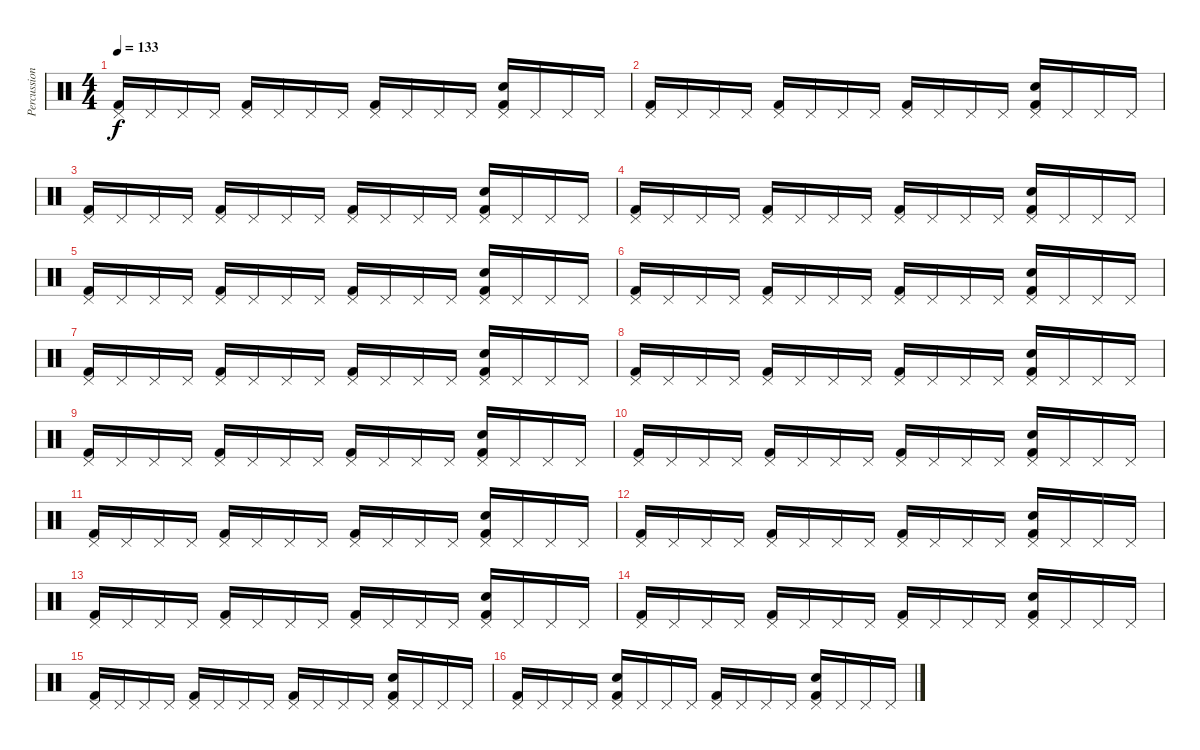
\track ("Percussions" "Percussion") {instrument percussion}
\staff {score}
\articulation defaults
\ts (4 4)
\tempo 133
\clef neutral
\ks c
("Pedal Hi-Hat (hit)" "Kick (hit) 2").16{dy f} "Pedal Hi-Hat (hit)".16 "Pedal Hi-Hat (hit)".16 "Pedal Hi-Hat (hit)".16 ("Pedal Hi-Hat (hit)" "Kick (hit) 2").16 "Pedal Hi-Hat (hit)".16 "Pedal Hi-Hat (hit)".16 "Pedal Hi-Hat (hit)".16 ("Pedal Hi-Hat (hit)" "Kick (hit) 2").16 "Pedal Hi-Hat (hit)".16 "Pedal Hi-Hat (hit)".16 "Pedal Hi-Hat (hit)".16 ("Pedal Hi-Hat (hit)" "Electric Snare (hit)" "Kick (hit) 2").16 "Pedal Hi-Hat (hit)".16 "Pedal Hi-Hat (hit)".16 "Pedal Hi-Hat (hit)".16 |
("Pedal Hi-Hat (hit)" "Kick (hit) 2").16 "Pedal Hi-Hat (hit)".16 "Pedal Hi-Hat (hit)".16 "Pedal Hi-Hat (hit)".16 ("Pedal Hi-Hat (hit)" "Kick (hit) 2").16 "Pedal Hi-Hat (hit)".16 "Pedal Hi-Hat (hit)".16 "Pedal Hi-Hat (hit)".16 ("Pedal Hi-Hat (hit)" "Kick (hit) 2").16 "Pedal Hi-Hat (hit)".16 "Pedal Hi-Hat (hit)".16 "Pedal Hi-Hat (hit)".16 ("Pedal Hi-Hat (hit)" "Electric Snare (hit)" "Kick (hit) 2").16 "Pedal Hi-Hat (hit)".16 "Pedal Hi-Hat (hit)".16 "Pedal Hi-Hat (hit)".16 |
("Pedal Hi-Hat (hit)" "Kick (hit) 2").16 "Pedal Hi-Hat (hit)".16 "Pedal Hi-Hat (hit)".16 "Pedal Hi-Hat (hit)".16 ("Pedal Hi-Hat (hit)" "Kick (hit) 2").16 "Pedal Hi-Hat (hit)".16 "Pedal Hi-Hat (hit)".16 "Pedal Hi-Hat (hit)".16 ("Pedal Hi-Hat (hit)" "Kick (hit) 2").16 "Pedal Hi-Hat (hit)".16 "Pedal Hi-Hat (hit)".16 "Pedal Hi-Hat (hit)".16 ("Pedal Hi-Hat (hit)" "Electric Snare (hit)" "Kick (hit) 2").16 "Pedal Hi-Hat (hit)".16 "Pedal Hi-Hat (hit)".16 "Pedal Hi-Hat (hit)".16 |
("Pedal Hi-Hat (hit)" "Kick (hit) 2").16 "Pedal Hi-Hat (hit)".16 "Pedal Hi-Hat (hit)".16 "Pedal Hi-Hat (hit)".16 ("Pedal Hi-Hat (hit)" "Kick (hit) 2").16 "Pedal Hi-Hat (hit)".16 "Pedal Hi-Hat (hit)".16 "Pedal Hi-Hat (hit)".16 ("Pedal Hi-Hat (hit)" "Kick (hit) 2").16 "Pedal Hi-Hat (hit)".16 "Pedal Hi-Hat (hit)".16 "Pedal Hi-Hat (hit)".16 ("Pedal Hi-Hat (hit)" "Electric Snare (hit)" "Kick (hit) 2").16 "Pedal Hi-Hat (hit)".16 "Pedal Hi-Hat (hit)".16 "Pedal Hi-Hat (hit)".16 |
("Pedal Hi-Hat (hit)" "Kick (hit) 2").16 "Pedal Hi-Hat (hit)".16 "Pedal Hi-Hat (hit)".16 "Pedal Hi-Hat (hit)".16 ("Pedal Hi-Hat (hit)" "Kick (hit) 2").16 "Pedal Hi-Hat (hit)".16 "Pedal Hi-Hat (hit)".16 "Pedal Hi-Hat (hit)".16 ("Pedal Hi-Hat (hit)" "Kick (hit) 2").16 "Pedal Hi-Hat (hit)".16 "Pedal Hi-Hat (hit)".16 "Pedal Hi-Hat (hit)".16 ("Pedal Hi-Hat (hit)" "Electric Snare (hit)" "Kick (hit) 2").16 "Pedal Hi-Hat (hit)".16 "Pedal Hi-Hat (hit)".16 "Pedal Hi-Hat (hit)".16 |
("Pedal Hi-Hat (hit)" "Kick (hit) 2").16 "Pedal Hi-Hat (hit)".16 "Pedal Hi-Hat (hit)".16 "Pedal Hi-Hat (hit)".16 ("Pedal Hi-Hat (hit)" "Kick (hit) 2").16 "Pedal Hi-Hat (hit)".16 "Pedal Hi-Hat (hit)".16 "Pedal Hi-Hat (hit)".16 ("Pedal Hi-Hat (hit)" "Kick (hit) 2").16 "Pedal Hi-Hat (hit)".16 "Pedal Hi-Hat (hit)".16 "Pedal Hi-Hat (hit)".16 ("Pedal Hi-Hat (hit)" "Electric Snare (hit)" "Kick (hit) 2").16 "Pedal Hi-Hat (hit)".16 "Pedal Hi-Hat (hit)".16 "Pedal Hi-Hat (hit)".16 |
("Pedal Hi-Hat (hit)" "Kick (hit) 2").16 "Pedal Hi-Hat (hit)".16 "Pedal Hi-Hat (hit)".16 "Pedal Hi-Hat (hit)".16 ("Pedal Hi-Hat (hit)" "Kick (hit) 2").16 "Pedal Hi-Hat (hit)".16 "Pedal Hi-Hat (hit)".16 "Pedal Hi-Hat (hit)".16 ("Pedal Hi-Hat (hit)" "Kick (hit) 2").16 "Pedal Hi-Hat (hit)".16 "Pedal Hi-Hat (hit)".16 "Pedal Hi-Hat (hit)".16 ("Pedal Hi-Hat (hit)" "Electric Snare (hit)" "Kick (hit) 2").16 "Pedal Hi-Hat (hit)".16 "Pedal Hi-Hat (hit)".16 "Pedal Hi-Hat (hit)".16 |
("Pedal Hi-Hat (hit)" "Kick (hit) 2").16 "Pedal Hi-Hat (hit)".16 "Pedal Hi-Hat (hit)".16 "Pedal Hi-Hat (hit)".16 ("Pedal Hi-Hat (hit)" "Kick (hit) 2").16 "Pedal Hi-Hat (hit)".16 "Pedal Hi-Hat (hit)".16 "Pedal Hi-Hat (hit)".16 ("Pedal Hi-Hat (hit)" "Kick (hit) 2").16 "Pedal Hi-Hat (hit)".16 "Pedal Hi-Hat (hit)".16 "Pedal Hi-Hat (hit)".16 ("Pedal Hi-Hat (hit)" "Electric Snare (hit)" "Kick (hit) 2").16 "Pedal Hi-Hat (hit)".16 "Pedal Hi-Hat (hit)".16 "Pedal Hi-Hat (hit)".16 |
("Pedal Hi-Hat (hit)" "Kick (hit) 2").16 "Pedal Hi-Hat (hit)".16 "Pedal Hi-Hat (hit)".16 "Pedal Hi-Hat (hit)".16 ("Pedal Hi-Hat (hit)" "Kick (hit) 2").16 "Pedal Hi-Hat (hit)".16 "Pedal Hi-Hat (hit)".16 "Pedal Hi-Hat (hit)".16 ("Pedal Hi-Hat (hit)" "Kick (hit) 2").16 "Pedal Hi-Hat (hit)".16 "Pedal Hi-Hat (hit)".16 "Pedal Hi-Hat (hit)".16 ("Pedal Hi-Hat (hit)" "Electric Snare (hit)" "Kick (hit) 2").16 "Pedal Hi-Hat (hit)".16 "Pedal Hi-Hat (hit)".16 "Pedal Hi-Hat (hit)".16 |
("Pedal Hi-Hat (hit)" "Kick (hit) 2").16 "Pedal Hi-Hat (hit)".16 "Pedal Hi-Hat (hit)".16 "Pedal Hi-Hat (hit)".16 ("Pedal Hi-Hat (hit)" "Kick (hit) 2").16 "Pedal Hi-Hat (hit)".16 "Pedal Hi-Hat (hit)".16 "Pedal Hi-Hat (hit)".16 ("Pedal Hi-Hat (hit)" "Kick (hit) 2").16 "Pedal Hi-Hat (hit)".16 "Pedal Hi-Hat (hit)".16 "Pedal Hi-Hat (hit)".16 ("Pedal Hi-Hat (hit)" "Electric Snare (hit)" "Kick (hit) 2").16 "Pedal Hi-Hat (hit)".16 "Pedal Hi-Hat (hit)".16 "Pedal Hi-Hat (hit)".16 |
("Pedal Hi-Hat (hit)" "Kick (hit) 2").16 "Pedal Hi-Hat (hit)".16 "Pedal Hi-Hat (hit)".16 "Pedal Hi-Hat (hit)".16 ("Pedal Hi-Hat (hit)" "Kick (hit) 2").16 "Pedal Hi-Hat (hit)".16 "Pedal Hi-Hat (hit)".16 "Pedal Hi-Hat (hit)".16 ("Pedal Hi-Hat (hit)" "Kick (hit) 2").16 "Pedal Hi-Hat (hit)".16 "Pedal Hi-Hat (hit)".16 "Pedal Hi-Hat (hit)".16 ("Pedal Hi-Hat (hit)" "Electric Snare (hit)" "Kick (hit) 2").16 "Pedal Hi-Hat (hit)".16 "Pedal Hi-Hat (hit)".16 "Pedal Hi-Hat (hit)".16 |
("Pedal Hi-Hat (hit)" "Kick (hit) 2").16 "Pedal Hi-Hat (hit)".16 "Pedal Hi-Hat (hit)".16 "Pedal Hi-Hat (hit)".16 ("Pedal Hi-Hat (hit)" "Kick (hit) 2").16 "Pedal Hi-Hat (hit)".16 "Pedal Hi-Hat (hit)".16 "Pedal Hi-Hat (hit)".16 ("Pedal Hi-Hat (hit)" "Kick (hit) 2").16 "Pedal Hi-Hat (hit)".16 "Pedal Hi-Hat (hit)".16 "Pedal Hi-Hat (hit)".16 ("Pedal Hi-Hat (hit)" "Electric Snare (hit)" "Kick (hit) 2").16 "Pedal Hi-Hat (hit)".16 "Pedal Hi-Hat (hit)".16 "Pedal Hi-Hat (hit)".16 |
("Pedal Hi-Hat (hit)" "Kick (hit) 2").16 "Pedal Hi-Hat (hit)".16 "Pedal Hi-Hat (hit)".16 "Pedal Hi-Hat (hit)".16 ("Pedal Hi-Hat (hit)" "Kick (hit) 2").16 "Pedal Hi-Hat (hit)".16 "Pedal Hi-Hat (hit)".16 "Pedal Hi-Hat (hit)".16 ("Pedal Hi-Hat (hit)" "Kick (hit) 2").16 "Pedal Hi-Hat (hit)".16 "Pedal Hi-Hat (hit)".16 "Pedal Hi-Hat (hit)".16 ("Pedal Hi-Hat (hit)" "Electric Snare (hit)" "Kick (hit) 2").16 "Pedal Hi-Hat (hit)".16 "Pedal Hi-Hat (hit)".16 "Pedal Hi-Hat (hit)".16 |
("Pedal Hi-Hat (hit)" "Kick (hit) 2").16 "Pedal Hi-Hat (hit)".16 "Pedal Hi-Hat (hit)".16 "Pedal Hi-Hat (hit)".16 ("Pedal Hi-Hat (hit)" "Kick (hit) 2").16 "Pedal Hi-Hat (hit)".16 "Pedal Hi-Hat (hit)".16 "Pedal Hi-Hat (hit)".16 ("Pedal Hi-Hat (hit)" "Kick (hit) 2").16 "Pedal Hi-Hat (hit)".16 "Pedal Hi-Hat (hit)".16 "Pedal Hi-Hat (hit)".16 ("Pedal Hi-Hat (hit)" "Electric Snare (hit)" "Kick (hit) 2").16 "Pedal Hi-Hat (hit)".16 "Pedal Hi-Hat (hit)".16 "Pedal Hi-Hat (hit)".16 |
("Pedal Hi-Hat (hit)" "Kick (hit) 2").16 "Pedal Hi-Hat (hit)".16 "Pedal Hi-Hat (hit)".16 "Pedal Hi-Hat (hit)".16 ("Pedal Hi-Hat (hit)" "Kick (hit) 2").16 "Pedal Hi-Hat (hit)".16 "Pedal Hi-Hat (hit)".16 "Pedal Hi-Hat (hit)".16 ("Pedal Hi-Hat (hit)" "Kick (hit) 2").16 "Pedal Hi-Hat (hit)".16 "Pedal Hi-Hat (hit)".16 "Pedal Hi-Hat (hit)".16 ("Pedal Hi-Hat (hit)" "Electric Snare (hit)" "Kick (hit) 2").16 "Pedal Hi-Hat (hit)".16 "Pedal Hi-Hat (hit)".16 "Pedal Hi-Hat (hit)".16 |
("Pedal Hi-Hat (hit)" "Kick (hit) 2").16 "Pedal Hi-Hat (hit)".16 "Pedal Hi-Hat (hit)".16 "Pedal Hi-Hat (hit)".16 ("Pedal Hi-Hat (hit)" "Electric Snare (hit)" "Kick (hit) 2").16 "Pedal Hi-Hat (hit)".16 "Pedal Hi-Hat (hit)".16 "Pedal Hi-Hat (hit)".16 ("Pedal Hi-Hat (hit)" "Kick (hit) 2").16 "Pedal Hi-Hat (hit)".16 "Pedal Hi-Hat (hit)".16 "Pedal Hi-Hat (hit)".16 ("Pedal Hi-Hat (hit)" "Electric Snare (hit)" "Kick (hit) 2").16 "Pedal Hi-Hat (hit)".16 "Pedal Hi-Hat (hit)".16 "Pedal Hi-Hat (hit)".16
